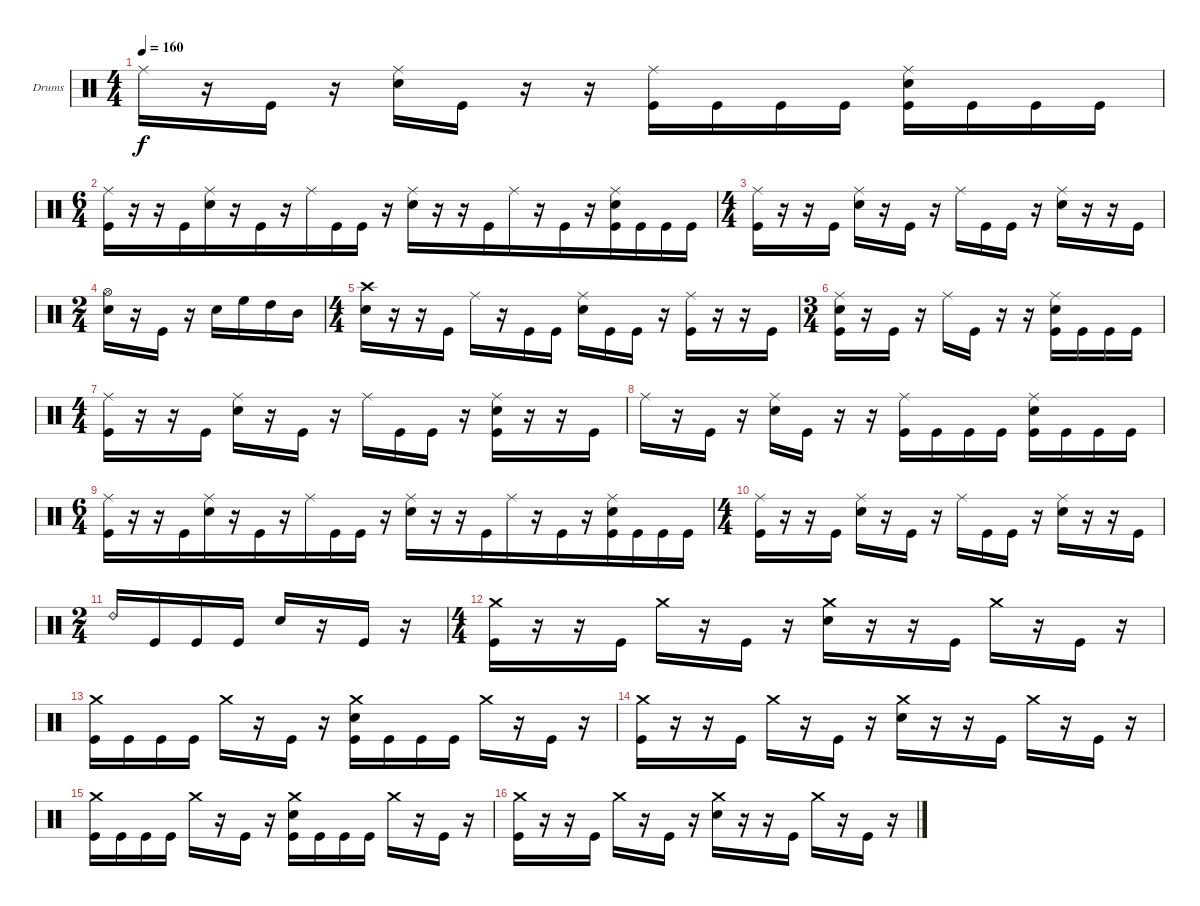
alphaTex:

\bracketExtendMode groupsimilarinstruments
\firstSystemTrackNameOrientation horizontal
\otherSystemsTrackNameOrientation horizontal
\track ("Drumkit" "Drums") {solo instrument percussion}
\staff {score}
\articulation defaults
\ts (4 4)
\tempo 160
\clef neutral
\ks c "Ride (middle)".16{dy f}
r.16 "Kick (hit)".16 r.16 ("Ride (middle)" "Snare (hit) 2").16 "Kick (hit)".16 r.16 r.16 ("Ride (middle)" "Kick (hit)").16 "Kick (hit)".16 "Kick (hit)".16 "Kick (hit)".16 ("Ride (middle)" "Snare (hit) 2" "Kick (hit)").16 "Kick (hit)".16 "Kick (hit)".16 "Kick (hit)".16 |
\ts (6 4)
\beaming (8 6 6)
("Ride (middle)" "Kick (hit)").16 r.16 r.16 "Kick (hit)".16 ("Ride (middle)" "Snare (hit) 2").16 r.16 "Kick (hit)".16 r.16 "Ride (middle)".16 "Kick (hit)".16 "Kick (hit)".16 r.16 ("Ride (middle)" "Snare (hit) 2").16 r.16 r.16 "Kick (hit)".16 "Ride (middle)".16 r.16 "Kick (hit)".16 r.16 ("Ride (middle)" "Snare (hit) 2" "Kick (hit)").16 "Kick (hit)".16 "Kick (hit)".16 "Kick (hit)".16 |
\ts (4 4)
\beaming (8 2 2 2 2)
("Ride (middle)" "Kick (hit)").16 r.16 r.16 "Kick (hit)".16 ("Ride (middle)" "Snare (hit) 2").16 r.16 "Kick (hit)".16 r.16 "Ride (middle)".16 "Kick (hit)".16 "Kick (hit)".16 r.16 ("Ride (middle)" "Snare (hit) 2").16 r.16 r.16 "Kick (hit)".16 |
\ts (2 4)
\beaming (8 2 2)
("Hi-Hat (open)" "Snare (hit) 2").16 r.16 "Kick (hit)".16 r.16 "Snare (hit) 2".16 "High Floor Tom (hit)".16 "High Tom (hit)".16 "Mid Tom (hit)".16 |
\ts (4 4)
\beaming (8 2 2 2 2)
("Crash high (hit)" "Snare (hit) 2").16 r.16 r.16 "Kick (hit)".16 "Ride (middle)".16 r.16 "Kick (hit)".16 "Kick (hit)".16 ("Ride (middle)" "Snare (hit) 2").16 "Kick (hit)".16 "Kick (hit)".16 r.16 ("Ride (middle)" "Kick (hit)").16 r.16 r.16 "Kick (hit)".16 |
\ts (3 4)
\beaming (8 2 2 2)
("Ride (middle)" "Snare (hit) 2" "Kick (hit)").16 r.16 "Kick (hit)".16 r.16 "Ride (middle)".16 "Kick (hit)".16 r.16 r.16 ("Ride (middle)" "Snare (hit) 2" "Kick (hit)").16 "Kick (hit)".16 "Kick (hit)".16 "Kick (hit)".16 |
\ts (4 4)
\beaming (8 2 2 2 2)
("Ride (middle)" "Kick (hit)").16 r.16 r.16 "Kick (hit)".16 ("Ride (middle)" "Snare (hit) 2").16 r.16 "Kick (hit)".16 r.16 "Ride (middle)".16 "Kick (hit)".16 "Kick (hit)".16 r.16 ("Ride (middle)" "Snare (hit) 2" "Kick (hit)").16 r.16 r.16 "Kick (hit)".16 |
"Ride (middle)".16 r.16 "Kick (hit)".16 r.16 ("Ride (middle)" "Snare (hit) 2").16 "Kick (hit)".16 r.16 r.16 ("Ride (middle)" "Kick (hit)").16 "Kick (hit)".16 "Kick (hit)".16 "Kick (hit)".16 ("Ride (middle)" "Snare (hit) 2" "Kick (hit)").16 "Kick (hit)".16 "Kick (hit)".16 "Kick (hit)".16 |
\ts (6 4)
\beaming (8 6 6)
("Ride (middle)" "Kick (hit)").16 r.16 r.16 "Kick (hit)".16 ("Ride (middle)" "Snare (hit) 2").16 r.16 "Kick (hit)".16 r.16 "Ride (middle)".16 "Kick (hit)".16 "Kick (hit)".16 r.16 ("Ride (middle)" "Snare (hit) 2").16 r.16 r.16 "Kick (hit)".16 "Ride (middle)".16 r.16 "Kick (hit)".16 r.16 ("Ride (middle)" "Snare (hit) 2" "Kick (hit)").16 "Kick (hit)".16 "Kick (hit)".16 "Kick (hit)".16 |
\ts (4 4)
\beaming (8 2 2 2 2)
("Ride (middle)" "Kick (hit)").16 r.16 r.16 "Kick (hit)".16 ("Ride (middle)" "Snare (hit) 2").16 r.16 "Kick (hit)".16 r.16 "Ride (middle)".16 "Kick (hit)".16 "Kick (hit)".16 r.16 ("Ride (middle)" "Snare (hit) 2").16 r.16 r.16 "Kick (hit)".16 |
\ts (2 4)
\beaming (8 2 2 2 2)
"Ride (bell) 2".16 "Kick (hit)".16 "Kick (hit)".16 "Kick (hit)".16 "Snare (hit) 2".16 r.16 "Kick (hit)".16 r.16 |
\ts (4 4)
\beaming (8 2 2 2 2)
("Crash medium (hit)" "Kick (hit)").16 r.16 r.16 "Kick (hit)".16 "Crash medium (hit)".16 r.16 "Kick (hit)".16 r.16 ("Crash medium (hit)" "Snare (hit) 2").16 r.16 r.16 "Kick (hit)".16 "Crash medium (hit)".16 r.16 "Kick (hit)".16 r.16 |
("Crash medium (hit)" "Kick (hit)").16 "Kick (hit)".16 "Kick (hit)".16 "Kick (hit)".16 "Crash medium (hit)".16 r.16 "Kick (hit)".16 r.16 ("Crash medium (hit)" "Snare (hit) 2" "Kick (hit)").16 "Kick (hit)".16 "Kick (hit)".16 "Kick (hit)".16 "Crash medium (hit)".16 r.16 "Kick (hit)".16 r.16 |
("Crash medium (hit)" "Kick (hit)").16 r.16 r.16 "Kick (hit)".16 "Crash medium (hit)".16 r.16 "Kick (hit)".16 r.16 ("Crash medium (hit)" "Snare (hit) 2").16 r.16 r.16 "Kick (hit)".16 "Crash medium (hit)".16 r.16 "Kick (hit)".16 r.16 |
("Crash medium (hit)" "Kick (hit)").16 "Kick (hit)".16 "Kick (hit)".16 "Kick (hit)".16 "Crash medium (hit)".16 r.16 "Kick (hit)".16 r.16 ("Crash medium (hit)" "Snare (hit) 2" "Kick (hit)").16 "Kick (hit)".16 "Kick (hit)".16 "Kick (hit)".16 "Crash medium (hit)".16 r.16 "Kick (hit)".16 r.16 |
("Crash medium (hit)" "Kick (hit)").16 r.16 r.16 "Kick (hit)".16 "Crash medium (hit)".16 r.16 "Kick (hit)".16 r.16 ("Crash medium (hit)" "Snare (hit) 2").16 r.16 r.16 "Kick (hit)".16 "Crash medium (hit)".16 r.16 "Kick (hit)".16 r.16
